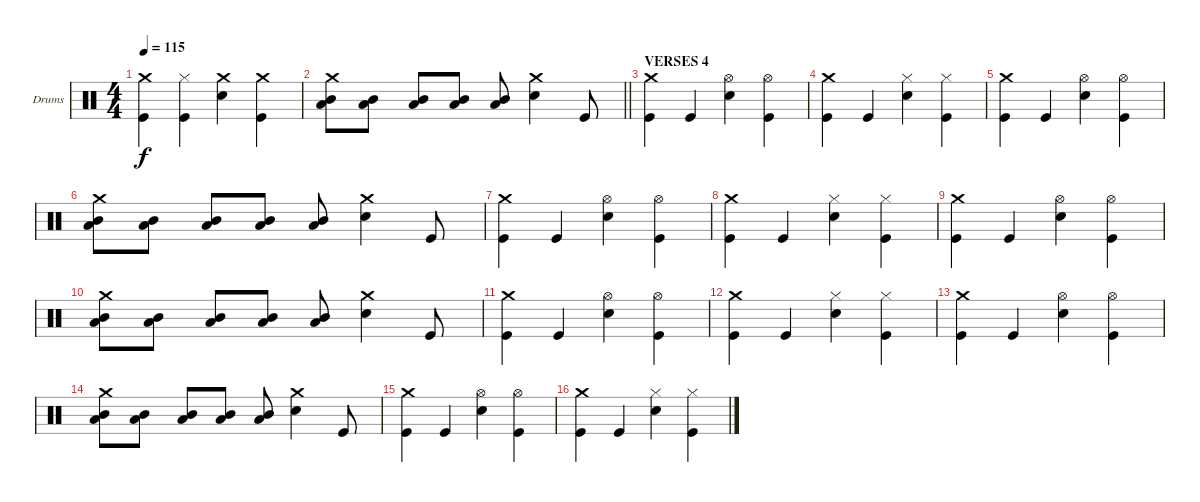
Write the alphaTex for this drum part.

\bracketExtendMode groupsimilarinstruments
\firstSystemTrackNameOrientation horizontal
\otherSystemsTrackNameOrientation horizontal
\track ("Drumkit" "Drums") {instrument percussion}
\staff {score}
\articulation defaults
\ts (4 4)
\tempo 115
\clef neutral
\ks aminor
("Crash medium (hit)" "Kick (hit)").4{dy f} ("Hi-Hat (closed)" "Kick (hit)").4 ("Crash medium (hit)" "Snare (hit) 2").4 ("Crash medium (hit)" "Kick (hit)").4 |
\barLineRight lightlight
("Crash medium (hit)" "Low Tom (hit)" "Mid Tom (hit)").8 ("Low Tom (hit)" "Mid Tom (hit)").8 ("Low Tom (hit)" "Mid Tom (hit)").8 ("Low Tom (hit)" "Mid Tom (hit)").8 ("Low Tom (hit)" "Mid Tom (hit)").8 ("Crash medium (hit)" "Snare (hit) 2").4 "Kick (hit)".8 |
\section ("" "VERSES 4")
("Crash medium (hit)" "Kick (hit)").4 "Kick (hit)".4 ("Hi-Hat (open)" "Snare (hit) 2").4 ("Hi-Hat (open)" "Kick (hit)").4 |
("Crash medium (hit)" "Kick (hit)").4 "Kick (hit)".4 ("Hi-Hat (closed)" "Snare (hit) 2").4 ("Hi-Hat (closed)" "Kick (hit)").4 |
("Crash medium (hit)" "Kick (hit)").4 "Kick (hit)".4 ("Hi-Hat (open)" "Snare (hit) 2").4 ("Hi-Hat (open)" "Kick (hit)").4 |
("Crash medium (hit)" "Low Tom (hit)" "Mid Tom (hit)").8 ("Low Tom (hit)" "Mid Tom (hit)").8 ("Low Tom (hit)" "Mid Tom (hit)").8 ("Low Tom (hit)" "Mid Tom (hit)").8 ("Low Tom (hit)" "Mid Tom (hit)").8 ("Crash medium (hit)" "Snare (hit) 2").4 "Kick (hit)".8 |
("Crash medium (hit)" "Kick (hit)").4 "Kick (hit)".4 ("Hi-Hat (open)" "Snare (hit) 2").4 ("Hi-Hat (open)" "Kick (hit)").4 |
("Crash medium (hit)" "Kick (hit)").4 "Kick (hit)".4 ("Hi-Hat (closed)" "Snare (hit) 2").4 ("Hi-Hat (closed)" "Kick (hit)").4 |
("Crash medium (hit)" "Kick (hit)").4 "Kick (hit)".4 ("Hi-Hat (open)" "Snare (hit) 2").4 ("Hi-Hat (open)" "Kick (hit)").4 |
("Crash medium (hit)" "Low Tom (hit)" "Mid Tom (hit)").8 ("Low Tom (hit)" "Mid Tom (hit)").8 ("Low Tom (hit)" "Mid Tom (hit)").8 ("Low Tom (hit)" "Mid Tom (hit)").8 ("Low Tom (hit)" "Mid Tom (hit)").8 ("Crash medium (hit)" "Snare (hit) 2").4 "Kick (hit)".8 |
("Crash medium (hit)" "Kick (hit)").4 "Kick (hit)".4 ("Hi-Hat (open)" "Snare (hit) 2").4 ("Hi-Hat (open)" "Kick (hit)").4 |
("Crash medium (hit)" "Kick (hit)").4 "Kick (hit)".4 ("Hi-Hat (closed)" "Snare (hit) 2").4 ("Hi-Hat (closed)" "Kick (hit)").4 |
("Crash medium (hit)" "Kick (hit)").4 "Kick (hit)".4 ("Hi-Hat (open)" "Snare (hit) 2").4 ("Hi-Hat (open)" "Kick (hit)").4 |
("Crash medium (hit)" "Low Tom (hit)" "Mid Tom (hit)").8 ("Low Tom (hit)" "Mid Tom (hit)").8 ("Low Tom (hit)" "Mid Tom (hit)").8 ("Low Tom (hit)" "Mid Tom (hit)").8 ("Low Tom (hit)" "Mid Tom (hit)").8 ("Crash medium (hit)" "Snare (hit) 2").4 "Kick (hit)".8 |
("Crash medium (hit)" "Kick (hit)").4 "Kick (hit)".4 ("Hi-Hat (open)" "Snare (hit) 2").4 ("Hi-Hat (open)" "Kick (hit)").4 |
("Crash medium (hit)" "Kick (hit)").4 "Kick (hit)".4 ("Hi-Hat (closed)" "Snare (hit) 2").4 ("Hi-Hat (closed)" "Kick (hit)").4
